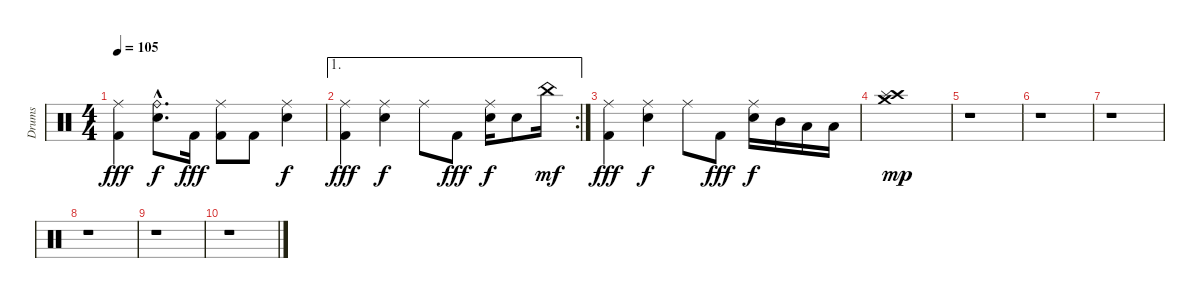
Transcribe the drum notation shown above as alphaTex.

\track ("Drums" "Drums") {instrument percussion}
\staff {score}
\articulation defaults
\ts (4 4)
\tempo 105
\clef neutral
\ks c
("Ride (middle)" "Kick (hit) 2").4{dy fff} ("Ride (bell)"{hac} "Electric Snare (hit)"{hac}).8{d dy f} "Kick (hit) 2".16{dy fff} ("Ride (middle)" "Kick (hit) 2").8 "Kick (hit) 2".8 ("Ride (middle)" "Electric Snare (hit)").4{dy f} |
\ae 1
\rc 2
("Ride (middle)" "Kick (hit) 2").4{dy fff} ("Ride (middle)" "Electric Snare (hit)").4{dy f} "Ride (middle)".8 "Kick (hit) 2".8{dy fff} ("Ride (middle)" "Electric Snare (hit)").16{dy f} "Electric Snare (hit)".8 "China (hit)".16{dy mf} |
("Ride (middle)" "Kick (hit) 2").4{dy fff} ("Ride (middle)" "Electric Snare (hit)").4{dy f} "Ride (middle)".8 "Kick (hit) 2".8{dy fff} ("Ride (middle)" "Electric Snare (hit)").16{dy f} "Mid Tom (hit)".16 "Low Tom (hit)".16 "Low Tom (hit)".16 |
("Crash medium (hit)" "Crash high (hit)" "Splash (hit)").1{bu 480 dy mp} |
r.1 |
r.1 |
r.1 |
r.1 |
r.1 |
r.1
